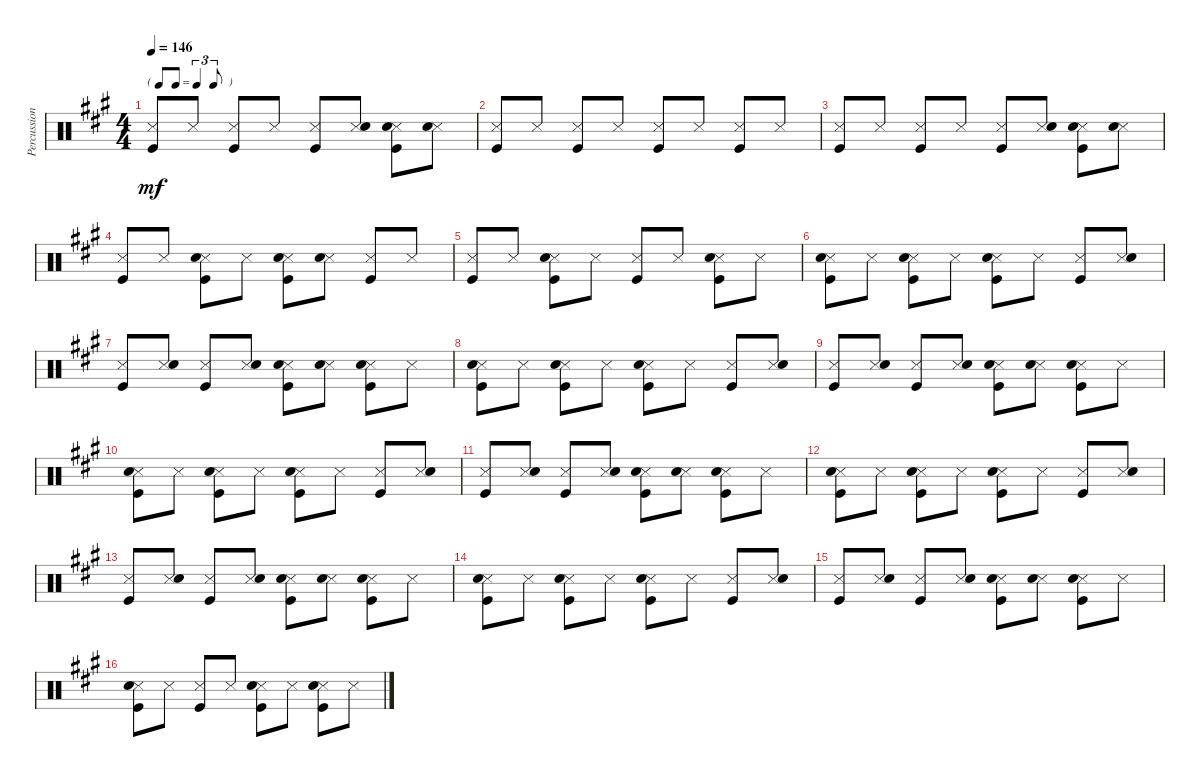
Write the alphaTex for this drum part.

\track ("Percussion" "Percussion") {instrument percussion}
\staff {score}
\articulation defaults
\ts (4 4)
\tf triplet8th
\tempo 146
\clef neutral
\ks a
("Snare (side stick) 3" "Kick (hit)").8{dy mf} "Snare (side stick) 3".8 ("Snare (side stick) 3" "Kick (hit)").8 "Snare (side stick) 3".8 ("Snare (side stick) 3" "Kick (hit)").8 ("Snare (side stick) 3" "Snare (hit) 2").8 ("Snare (side stick) 3" "Snare (hit) 2" "Kick (hit)").8 ("Snare (side stick) 3" "Snare (hit) 2").8 |
("Snare (side stick) 3" "Kick (hit)").8 "Snare (side stick) 3".8 ("Snare (side stick) 3" "Kick (hit)").8 "Snare (side stick) 3".8 ("Snare (side stick) 3" "Kick (hit)").8 "Snare (side stick) 3".8 ("Snare (side stick) 3" "Kick (hit)").8 "Snare (side stick) 3".8 |
("Snare (side stick) 3" "Kick (hit)").8 "Snare (side stick) 3".8 ("Snare (side stick) 3" "Kick (hit)").8 "Snare (side stick) 3".8 ("Snare (side stick) 3" "Kick (hit)").8 ("Snare (side stick) 3" "Snare (hit) 2").8 ("Snare (side stick) 3" "Snare (hit) 2" "Kick (hit)").8 ("Snare (side stick) 3" "Snare (hit) 2").8 |
("Snare (side stick) 3" "Kick (hit)").8 "Snare (side stick) 3".8 ("Snare (side stick) 3" "Snare (hit) 2" "Kick (hit)").8 "Snare (side stick) 3".8 ("Snare (side stick) 3" "Snare (hit) 2" "Kick (hit)").8 ("Snare (side stick) 3" "Snare (hit) 2").8 ("Snare (side stick) 3" "Kick (hit)").8 "Snare (side stick) 3".8 |
("Snare (side stick) 3" "Kick (hit)").8 "Snare (side stick) 3".8 ("Snare (side stick) 3" "Snare (hit) 2" "Kick (hit)").8 "Snare (side stick) 3".8 ("Snare (side stick) 3" "Kick (hit)").8 "Snare (side stick) 3".8 ("Snare (side stick) 3" "Snare (hit) 2" "Kick (hit)").8 "Snare (side stick) 3".8 |
("Snare (side stick) 3" "Snare (hit) 2" "Kick (hit)").8 "Snare (side stick) 3".8 ("Snare (side stick) 3" "Snare (hit) 2" "Kick (hit)").8 "Snare (side stick) 3".8 ("Snare (side stick) 3" "Snare (hit) 2" "Kick (hit)").8 "Snare (side stick) 3".8 ("Snare (side stick) 3" "Kick (hit)").8 ("Snare (side stick) 3" "Snare (hit) 2").8 |
("Snare (side stick) 3" "Kick (hit)").8 ("Snare (side stick) 3" "Snare (hit) 2").8 ("Snare (side stick) 3" "Kick (hit)").8 ("Snare (side stick) 3" "Snare (hit) 2").8 ("Snare (side stick) 3" "Snare (hit) 2" "Kick (hit)").8 ("Snare (side stick) 3" "Snare (hit) 2").8 ("Snare (side stick) 3" "Snare (hit) 2" "Kick (hit)").8 "Snare (side stick) 3".8 |
("Snare (side stick) 3" "Snare (hit) 2" "Kick (hit)").8 "Snare (side stick) 3".8 ("Snare (side stick) 3" "Snare (hit) 2" "Kick (hit)").8 "Snare (side stick) 3".8 ("Snare (side stick) 3" "Snare (hit) 2" "Kick (hit)").8 "Snare (side stick) 3".8 ("Snare (side stick) 3" "Kick (hit)").8 ("Snare (side stick) 3" "Snare (hit) 2").8 |
("Snare (side stick) 3" "Kick (hit)").8 ("Snare (side stick) 3" "Snare (hit) 2").8 ("Snare (side stick) 3" "Kick (hit)").8 ("Snare (side stick) 3" "Snare (hit) 2").8 ("Snare (side stick) 3" "Snare (hit) 2" "Kick (hit)").8 ("Snare (side stick) 3" "Snare (hit) 2").8 ("Snare (side stick) 3" "Snare (hit) 2" "Kick (hit)").8 "Snare (side stick) 3".8 |
("Snare (side stick) 3" "Snare (hit) 2" "Kick (hit)").8 "Snare (side stick) 3".8 ("Snare (side stick) 3" "Snare (hit) 2" "Kick (hit)").8 "Snare (side stick) 3".8 ("Snare (side stick) 3" "Snare (hit) 2" "Kick (hit)").8 "Snare (side stick) 3".8 ("Snare (side stick) 3" "Kick (hit)").8 ("Snare (side stick) 3" "Snare (hit) 2").8 |
("Snare (side stick) 3" "Kick (hit)").8 ("Snare (side stick) 3" "Snare (hit) 2").8 ("Snare (side stick) 3" "Kick (hit)").8 ("Snare (side stick) 3" "Snare (hit) 2").8 ("Snare (side stick) 3" "Snare (hit) 2" "Kick (hit)").8 ("Snare (side stick) 3" "Snare (hit) 2").8 ("Snare (side stick) 3" "Snare (hit) 2" "Kick (hit)").8 "Snare (side stick) 3".8 |
("Snare (side stick) 3" "Snare (hit) 2" "Kick (hit)").8 "Snare (side stick) 3".8 ("Snare (side stick) 3" "Snare (hit) 2" "Kick (hit)").8 "Snare (side stick) 3".8 ("Snare (side stick) 3" "Snare (hit) 2" "Kick (hit)").8 "Snare (side stick) 3".8 ("Snare (side stick) 3" "Kick (hit)").8 ("Snare (side stick) 3" "Snare (hit) 2").8 |
("Snare (side stick) 3" "Kick (hit)").8 ("Snare (side stick) 3" "Snare (hit) 2").8 ("Snare (side stick) 3" "Kick (hit)").8 ("Snare (side stick) 3" "Snare (hit) 2").8 ("Snare (side stick) 3" "Snare (hit) 2" "Kick (hit)").8 ("Snare (side stick) 3" "Snare (hit) 2").8 ("Snare (side stick) 3" "Snare (hit) 2" "Kick (hit)").8 "Snare (side stick) 3".8 |
("Snare (side stick) 3" "Snare (hit) 2" "Kick (hit)").8 "Snare (side stick) 3".8 ("Snare (side stick) 3" "Snare (hit) 2" "Kick (hit)").8 "Snare (side stick) 3".8 ("Snare (side stick) 3" "Snare (hit) 2" "Kick (hit)").8 "Snare (side stick) 3".8 ("Snare (side stick) 3" "Kick (hit)").8 ("Snare (side stick) 3" "Snare (hit) 2").8 |
("Snare (side stick) 3" "Kick (hit)").8 ("Snare (side stick) 3" "Snare (hit) 2").8 ("Snare (side stick) 3" "Kick (hit)").8 ("Snare (side stick) 3" "Snare (hit) 2").8 ("Snare (side stick) 3" "Snare (hit) 2" "Kick (hit)").8 ("Snare (side stick) 3" "Snare (hit) 2").8 ("Snare (side stick) 3" "Snare (hit) 2" "Kick (hit)").8 "Snare (side stick) 3".8 |
("Snare (side stick) 3" "Snare (hit) 2" "Kick (hit)").8 "Snare (side stick) 3".8 ("Snare (side stick) 3" "Kick (hit)").8 "Snare (side stick) 3".8 ("Snare (side stick) 3" "Snare (hit) 2" "Kick (hit)").8 "Snare (side stick) 3".8 ("Snare (side stick) 3" "Snare (hit) 2" "Kick (hit)").8 "Snare (side stick) 3".8
